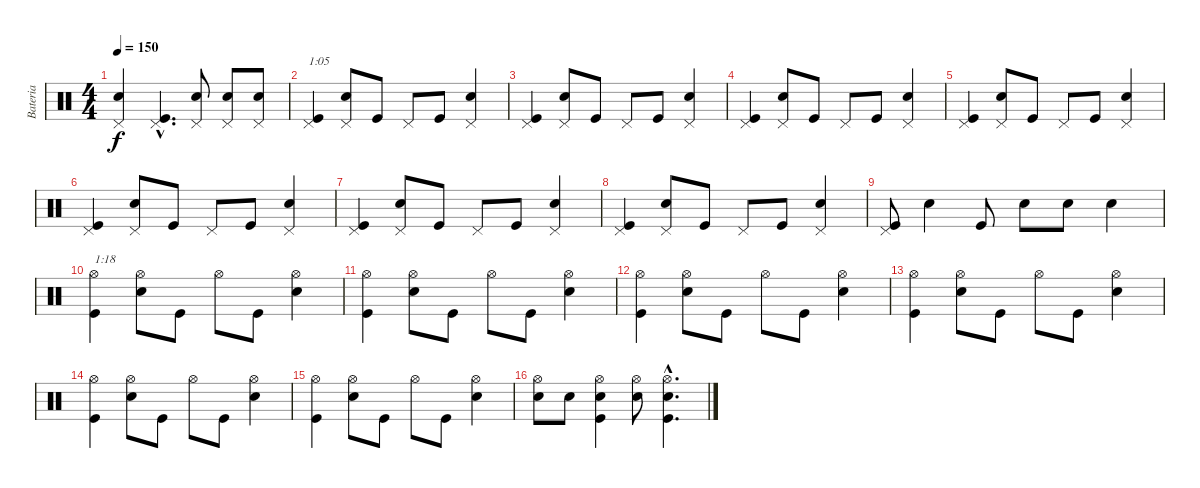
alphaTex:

\track ("Bateria" "Bateria") {instrument percussion}
\staff {score}
\articulation defaults
\ts (4 4)
\tempo 150
\clef neutral
\ks c
("Snare (hit) 2" "Pedal Hi-Hat (hit)").4{dy f} ("Kick (hit)"{hac} "Pedal Hi-Hat (hit)"{hac}).4{d} ("Snare (hit) 2" "Pedal Hi-Hat (hit)").8 ("Snare (hit) 2" "Pedal Hi-Hat (hit)").8 ("Snare (hit) 2" "Pedal Hi-Hat (hit)").8 |
("Kick (hit)" "Pedal Hi-Hat (hit)").4{txt "1:05"} ("Snare (hit) 2" "Pedal Hi-Hat (hit)").8 "Kick (hit)".8 "Pedal Hi-Hat (hit)".8 "Kick (hit)".8 ("Snare (hit) 2" "Pedal Hi-Hat (hit)").4 |
("Kick (hit)" "Pedal Hi-Hat (hit)").4 ("Snare (hit) 2" "Pedal Hi-Hat (hit)").8 "Kick (hit)".8 "Pedal Hi-Hat (hit)".8 "Kick (hit)".8 ("Snare (hit) 2" "Pedal Hi-Hat (hit)").4 |
("Kick (hit)" "Pedal Hi-Hat (hit)").4 ("Snare (hit) 2" "Pedal Hi-Hat (hit)").8 "Kick (hit)".8 "Pedal Hi-Hat (hit)".8 "Kick (hit)".8 ("Snare (hit) 2" "Pedal Hi-Hat (hit)").4 |
("Kick (hit)" "Pedal Hi-Hat (hit)").4 ("Snare (hit) 2" "Pedal Hi-Hat (hit)").8 "Kick (hit)".8 "Pedal Hi-Hat (hit)".8 "Kick (hit)".8 ("Snare (hit) 2" "Pedal Hi-Hat (hit)").4 |
("Kick (hit)" "Pedal Hi-Hat (hit)").4 ("Snare (hit) 2" "Pedal Hi-Hat (hit)").8 "Kick (hit)".8 "Pedal Hi-Hat (hit)".8 "Kick (hit)".8 ("Snare (hit) 2" "Pedal Hi-Hat (hit)").4 |
("Kick (hit)" "Pedal Hi-Hat (hit)").4 ("Snare (hit) 2" "Pedal Hi-Hat (hit)").8 "Kick (hit)".8 "Pedal Hi-Hat (hit)".8 "Kick (hit)".8 ("Snare (hit) 2" "Pedal Hi-Hat (hit)").4 |
("Kick (hit)" "Pedal Hi-Hat (hit)").4 ("Snare (hit) 2" "Pedal Hi-Hat (hit)").8 "Kick (hit)".8 "Pedal Hi-Hat (hit)".8 "Kick (hit)".8 ("Snare (hit) 2" "Pedal Hi-Hat (hit)").4 |
("Kick (hit)" "Pedal Hi-Hat (hit)").8 "Snare (hit) 2".4 "Kick (hit)".8 "Snare (hit) 2".8 "Snare (hit) 2".8 "Snare (hit) 2".4 |
("Kick (hit)" "Hi-Hat (open)").4{txt "1:18"} ("Snare (hit) 2" "Hi-Hat (open)").8 "Kick (hit)".8 "Hi-Hat (open)".8 "Kick (hit)".8 ("Snare (hit) 2" "Hi-Hat (open)").4 |
("Kick (hit)" "Hi-Hat (open)").4 ("Snare (hit) 2" "Hi-Hat (open)").8 "Kick (hit)".8 "Hi-Hat (open)".8 "Kick (hit)".8 ("Snare (hit) 2" "Hi-Hat (open)").4 |
("Kick (hit)" "Hi-Hat (open)").4 ("Snare (hit) 2" "Hi-Hat (open)").8 "Kick (hit)".8 "Hi-Hat (open)".8 "Kick (hit)".8 ("Snare (hit) 2" "Hi-Hat (open)").4 |
("Kick (hit)" "Hi-Hat (open)").4 ("Snare (hit) 2" "Hi-Hat (open)").8 "Kick (hit)".8 "Hi-Hat (open)".8 "Kick (hit)".8 ("Snare (hit) 2" "Hi-Hat (open)").4 |
("Kick (hit)" "Hi-Hat (open)").4 ("Snare (hit) 2" "Hi-Hat (open)").8 "Kick (hit)".8 "Hi-Hat (open)".8 "Kick (hit)".8 ("Snare (hit) 2" "Hi-Hat (open)").4 |
("Kick (hit)" "Hi-Hat (open)").4 ("Snare (hit) 2" "Hi-Hat (open)").8 "Kick (hit)".8 "Hi-Hat (open)".8 "Kick (hit)".8 ("Snare (hit) 2" "Hi-Hat (open)").4 |
("Snare (hit) 2" "Hi-Hat (open)").8 "Snare (hit) 2".8 ("Kick (hit)" "Snare (hit) 2" "Hi-Hat (open)").4 ("Snare (hit) 2" "Hi-Hat (open)").8 ("Kick (hit)"{hac} "Snare (hit) 2"{hac} "Hi-Hat (open)"{hac}).4{d}
